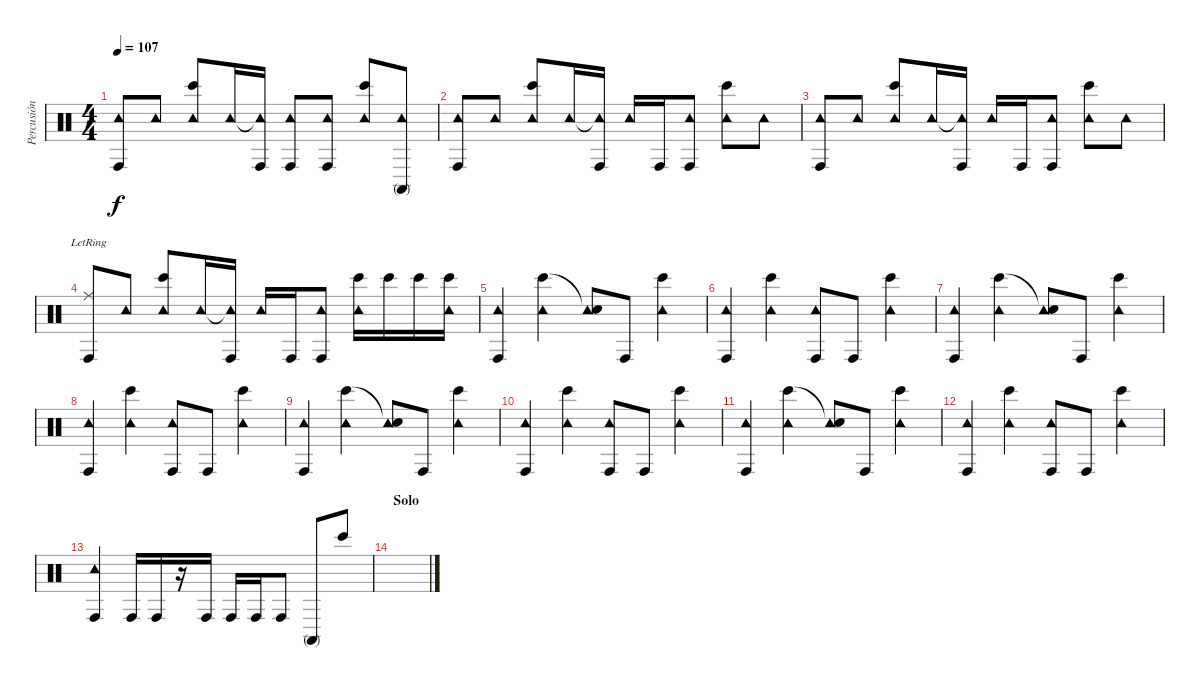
\track ("Percusión" "Percusión") {instrument percussion}
\staff {score}
\articulation defaults
\ts (4 4)
\tempo 107
\clef neutral
\ks c
("Tambourine (hit)" "Conga high (hit)").8{dy f} "Tambourine (hit)".8 ("Tambourine (hit)" "Bongo High (hit)").8 "Tambourine (hit)".16 ("Tambourine (hit)"{t} "Conga high (hit)").16 ("Tambourine (hit)" "Conga high (hit)").8 ("Tambourine (hit)" "Conga high (hit)").8 ("Tambourine (hit)" "Bongo High (hit)").8 ("Tambourine (hit)" "Conga high (mute)").8 |
("Tambourine (hit)" "Conga high (hit)").8 "Tambourine (hit)".8 ("Tambourine (hit)" "Bongo High (hit)").8 "Tambourine (hit)".16 ("Tambourine (hit)"{t} "Conga high (hit)").16 "Tambourine (hit)".16 "Conga high (hit)".16 ("Tambourine (hit)" "Conga high (hit)").8 ("Tambourine (hit)" "Bongo High (hit)").8 "Tambourine (hit)".8 |
("Tambourine (hit)" "Conga high (hit)").8 "Tambourine (hit)".8 ("Tambourine (hit)" "Bongo High (hit)").8 "Tambourine (hit)".16 ("Tambourine (hit)"{t} "Conga high (hit)").16 "Tambourine (hit)".16 "Conga high (hit)".16 ("Tambourine (hit)" "Conga high (hit)").8 ("Tambourine (hit)" "Bongo High (hit)").8 "Tambourine (hit)".8 |
("Ride (middle)"{lr} "Conga high (hit)").8 "Tambourine (hit)".8 ("Tambourine (hit)" "Bongo High (hit)").8 "Tambourine (hit)".16 ("Tambourine (hit)"{t} "Conga high (hit)").16 "Tambourine (hit)".16 "Conga high (hit)".16 ("Tambourine (hit)" "Conga high (hit)").8 ("Tambourine (hit)" "Bongo High (hit)").16 "Bongo High (hit)".16 "Bongo High (hit)".16 ("Tambourine (hit)" "Bongo High (hit)").16 |
("Tambourine (hit)" "Conga high (hit)").4 ("Tambourine (hit)" "Bongo High (hit)").4 ("Tambourine (hit)" "Snare (hit)"{t}).8 "Conga high (hit)".8 ("Tambourine (hit)" "Bongo High (hit)").4 |
("Tambourine (hit)" "Conga high (hit)").4 ("Tambourine (hit)" "Bongo High (hit)").4 ("Tambourine (hit)" "Conga high (hit)").8 "Conga high (hit)".8 ("Tambourine (hit)" "Bongo High (hit)").4 |
("Tambourine (hit)" "Conga high (hit)").4 ("Tambourine (hit)" "Bongo High (hit)").4 ("Tambourine (hit)" "Snare (hit)"{t}).8 "Conga high (hit)".8 ("Tambourine (hit)" "Bongo High (hit)").4 |
("Tambourine (hit)" "Conga high (hit)").4 ("Tambourine (hit)" "Bongo High (hit)").4 ("Tambourine (hit)" "Conga high (hit)").8 "Conga high (hit)".8 ("Tambourine (hit)" "Bongo High (hit)").4 |
("Tambourine (hit)" "Conga high (hit)").4 ("Tambourine (hit)" "Bongo High (hit)").4 ("Tambourine (hit)" "Snare (hit)"{t}).8 "Conga high (hit)".8 ("Tambourine (hit)" "Bongo High (hit)").4 |
("Tambourine (hit)" "Conga high (hit)").4 ("Tambourine (hit)" "Bongo High (hit)").4 ("Tambourine (hit)" "Conga high (hit)").8 "Conga high (hit)".8 ("Tambourine (hit)" "Bongo High (hit)").4 |
("Tambourine (hit)" "Conga high (hit)").4 ("Tambourine (hit)" "Bongo High (hit)").4 ("Tambourine (hit)" "Snare (hit)"{t}).8 "Conga high (hit)".8 ("Tambourine (hit)" "Bongo High (hit)").4 |
("Tambourine (hit)" "Conga high (hit)").4 ("Tambourine (hit)" "Bongo High (hit)").4 ("Tambourine (hit)" "Conga high (hit)").8 "Conga high (hit)".8 ("Tambourine (hit)" "Bongo High (hit)").4 |
("Tambourine (hit)" "Conga high (hit)").4 "Conga high (hit)".16 "Conga high (hit)".16 r.16 "Conga high (hit)".16 "Conga high (hit)".16 "Conga high (hit)".16 "Conga high (hit)".8 "Conga high (mute)".8 "Bongo High (hit)".8 |
\section ("" "Solo")
